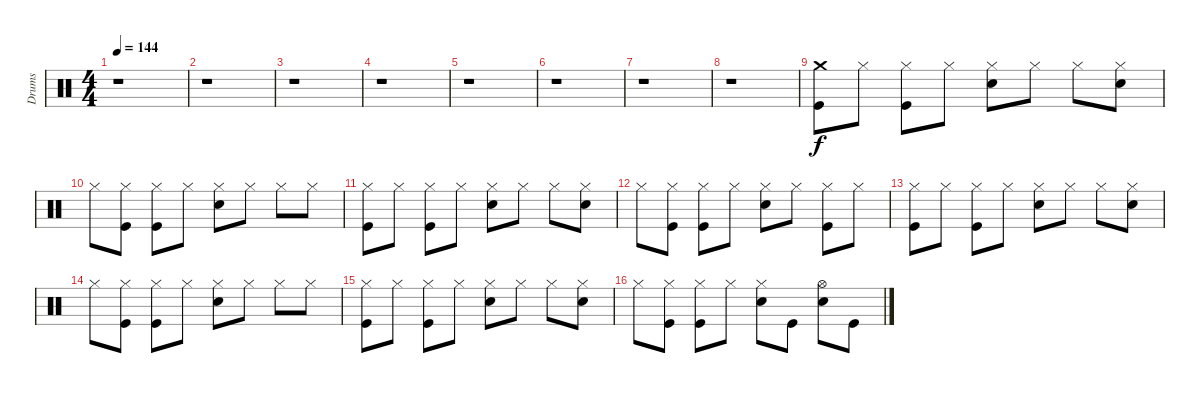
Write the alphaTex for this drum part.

\track ("Drums" "Drums") {instrument percussion}
\staff {score}
\articulation defaults
\ts (4 4)
\tempo 144
\clef neutral
\ks c
r.1{dy f} |
r.1 |
r.1 |
r.1 |
r.1 |
r.1 |
r.1 |
r.1 |
("Crash medium (hit)" "Kick (hit)").8 "Hi-Hat (closed)".8 ("Hi-Hat (closed)" "Kick (hit)").8 "Hi-Hat (closed)".8 ("Hi-Hat (closed)" "Snare (hit) 2").8 "Hi-Hat (closed)".8 "Hi-Hat (closed)".8 ("Hi-Hat (closed)" "Snare (hit) 2").8 |
"Hi-Hat (closed)".8 ("Hi-Hat (closed)" "Kick (hit)").8 ("Hi-Hat (closed)" "Kick (hit)").8 "Hi-Hat (closed)".8 ("Hi-Hat (closed)" "Snare (hit) 2").8 "Hi-Hat (closed)".8 "Hi-Hat (closed)".8 "Hi-Hat (closed)".8 |
("Hi-Hat (closed)" "Kick (hit)").8 "Hi-Hat (closed)".8 ("Hi-Hat (closed)" "Kick (hit)").8 "Hi-Hat (closed)".8 ("Hi-Hat (closed)" "Snare (hit) 2").8 "Hi-Hat (closed)".8 "Hi-Hat (closed)".8 ("Hi-Hat (closed)" "Snare (hit) 2").8 |
"Hi-Hat (closed)".8 ("Hi-Hat (closed)" "Kick (hit)").8 ("Hi-Hat (closed)" "Kick (hit)").8 "Hi-Hat (closed)".8 ("Hi-Hat (closed)" "Snare (hit) 2").8 "Hi-Hat (closed)".8 ("Hi-Hat (closed)" "Kick (hit)").8 "Hi-Hat (closed)".8 |
("Hi-Hat (closed)" "Kick (hit)").8 "Hi-Hat (closed)".8 ("Hi-Hat (closed)" "Kick (hit)").8 "Hi-Hat (closed)".8 ("Hi-Hat (closed)" "Snare (hit) 2").8 "Hi-Hat (closed)".8 "Hi-Hat (closed)".8 ("Hi-Hat (closed)" "Snare (hit) 2").8 |
"Hi-Hat (closed)".8 ("Hi-Hat (closed)" "Kick (hit)").8 ("Hi-Hat (closed)" "Kick (hit)").8 "Hi-Hat (closed)".8 ("Hi-Hat (closed)" "Snare (hit) 2").8 "Hi-Hat (closed)".8 "Hi-Hat (closed)".8 "Hi-Hat (closed)".8 |
("Hi-Hat (closed)" "Kick (hit)").8 "Hi-Hat (closed)".8 ("Hi-Hat (closed)" "Kick (hit)").8 "Hi-Hat (closed)".8 ("Hi-Hat (closed)" "Snare (hit) 2").8 "Hi-Hat (closed)".8 "Hi-Hat (closed)".8 ("Hi-Hat (closed)" "Snare (hit) 2").8 |
"Hi-Hat (closed)".8 ("Hi-Hat (closed)" "Kick (hit)").8 ("Hi-Hat (closed)" "Kick (hit)").8 "Hi-Hat (closed)".8 ("Hi-Hat (closed)" "Snare (hit) 2").8 "Kick (hit)".8 ("Hi-Hat (open)" "Snare (hit) 2").8 "Kick (hit)".8
